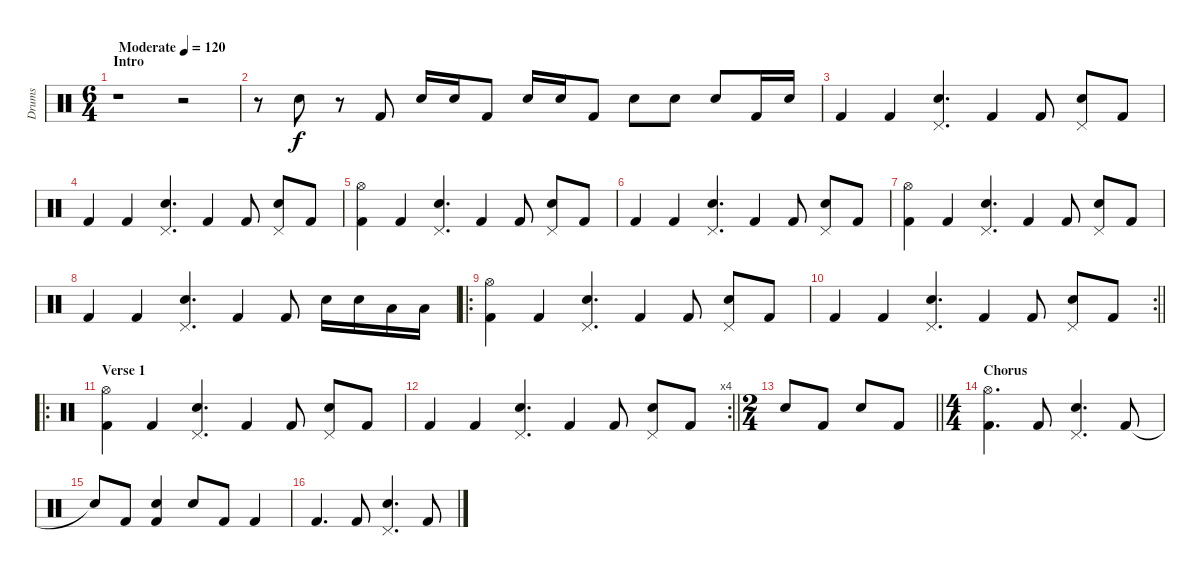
\track ("Drums" "Drums") {instrument percussion}
\staff {score}
\articulation defaults
\ts (6 4)
\section ("" "Intro")
\tempo (120 "Moderate")
\clef neutral
\ks c
r.1{dy f} r.2 |
r.8 "Snare (hit) 2".8 r.8 "Kick (hit) 2".8 "Snare (hit) 2".16 "Snare (hit) 2".16 "Kick (hit) 2".8 "Snare (hit) 2".16 "Snare (hit) 2".16 "Kick (hit) 2".8 "Snare (hit) 2".8 "Snare (hit) 2".8 "Snare (hit) 2".8 "Kick (hit) 2".16 "Snare (hit) 2".16 |
"Kick (hit) 2".4 "Kick (hit) 2".4 ("Pedal Hi-Hat (hit)" "Snare (hit) 2").4{d} "Kick (hit) 2".4 "Kick (hit) 2".8 ("Pedal Hi-Hat (hit)" "Snare (hit) 2").8 "Kick (hit) 2".8 |
"Kick (hit) 2".4 "Kick (hit) 2".4 ("Pedal Hi-Hat (hit)" "Snare (hit) 2").4{d} "Kick (hit) 2".4 "Kick (hit) 2".8 ("Pedal Hi-Hat (hit)" "Snare (hit) 2").8 "Kick (hit) 2".8 |
("Hi-Hat (open)" "Kick (hit) 2").4 "Kick (hit) 2".4 ("Pedal Hi-Hat (hit)" "Snare (hit) 2").4{d} "Kick (hit) 2".4 "Kick (hit) 2".8 ("Pedal Hi-Hat (hit)" "Snare (hit) 2").8 "Kick (hit) 2".8 |
"Kick (hit) 2".4 "Kick (hit) 2".4 ("Pedal Hi-Hat (hit)" "Snare (hit) 2").4{d} "Kick (hit) 2".4 "Kick (hit) 2".8 ("Pedal Hi-Hat (hit)" "Snare (hit) 2").8 "Kick (hit) 2".8 |
("Hi-Hat (open)" "Kick (hit) 2").4 "Kick (hit) 2".4 ("Pedal Hi-Hat (hit)" "Snare (hit) 2").4{d} "Kick (hit) 2".4 "Kick (hit) 2".8 ("Pedal Hi-Hat (hit)" "Snare (hit) 2").8 "Kick (hit) 2".8 |
"Kick (hit) 2".4 "Kick (hit) 2".4 ("Pedal Hi-Hat (hit)" "Snare (hit) 2").4{d} "Kick (hit) 2".4 "Kick (hit) 2".8 "Snare (hit) 2".16 "Snare (hit) 2".16 "Low Tom (hit)".16 "Low Tom (hit)".16 |
\ro
("Hi-Hat (open)" "Kick (hit) 2").4 "Kick (hit) 2".4 ("Pedal Hi-Hat (hit)" "Snare (hit) 2").4{d} "Kick (hit) 2".4 "Kick (hit) 2".8 ("Pedal Hi-Hat (hit)" "Snare (hit) 2").8 "Kick (hit) 2".8 |
\rc 2
\barLineRight lightlight "Kick (hit) 2".4 "Kick (hit) 2".4
("Pedal Hi-Hat (hit)" "Snare (hit) 2").4{d} "Kick (hit) 2".4 "Kick (hit) 2".8 ("Pedal Hi-Hat (hit)" "Snare (hit) 2").8 "Kick (hit) 2".8 |
\ro
\section ("" "Verse 1")
("Hi-Hat (open)" "Kick (hit) 2").4 "Kick (hit) 2".4 ("Pedal Hi-Hat (hit)" "Snare (hit) 2").4{d} "Kick (hit) 2".4 "Kick (hit) 2".8 ("Pedal Hi-Hat (hit)" "Snare (hit) 2").8 "Kick (hit) 2".8 |
\rc 4
\barLineRight lightlight "Kick (hit) 2".4 "Kick (hit) 2".4
("Pedal Hi-Hat (hit)" "Snare (hit) 2").4{d} "Kick (hit) 2".4 "Kick (hit) 2".8 ("Pedal Hi-Hat (hit)" "Snare (hit) 2").8 "Kick (hit) 2".8 |
\ts (2 4)
\barLineRight lightlight "Snare (hit) 2".8 "Kick (hit) 2".8 "Snare (hit) 2".8 "Kick (hit) 2".8
|
\ts (4 4)
\section ("" "Chorus")
("Hi-Hat (open)" "Kick (hit) 2").4{d} "Kick (hit) 2".8 ("Pedal Hi-Hat (hit)" "Snare (hit) 2").4{d} "Kick (hit) 2".8 |
"Snare (hit)"{t}.8 "Kick (hit) 2".8 ("Snare (hit) 2" "Kick (hit) 2").4 "Snare (hit) 2".8 "Kick (hit) 2".8 "Kick (hit) 2".4 |
"Kick (hit) 2".4{d} "Kick (hit) 2".8 ("Pedal Hi-Hat (hit)" "Snare (hit) 2").4{d} "Kick (hit) 2".8
